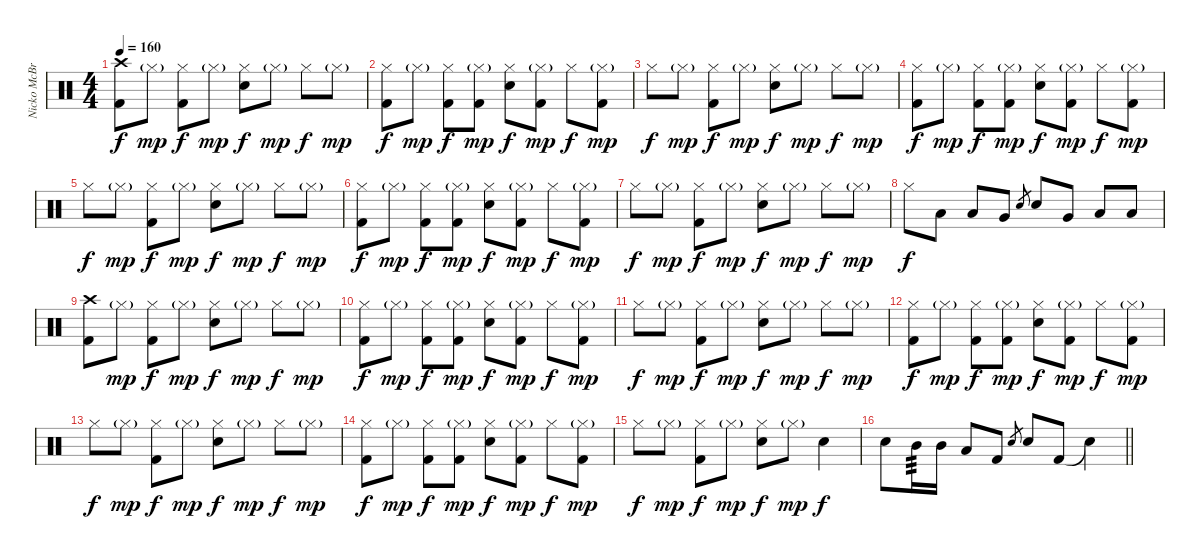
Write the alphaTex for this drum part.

\track ("Nicko McBrain" "Nicko McBr") {instrument percussion}
\staff {score}
\articulation defaults
\ts (4 4)
\tempo 160
\clef neutral
\ks c
("Crash high (hit)" "Kick (hit) 2").8{dy f volume 14} "Hi-Hat (closed)"{g}.8{dy mp} ("Hi-Hat (closed)" "Kick (hit) 2").8{dy f} "Hi-Hat (closed)"{g}.8{dy mp} ("Hi-Hat (closed)" "Electric Snare (hit)").8{dy f} "Hi-Hat (closed)"{g}.8{dy mp} "Hi-Hat (closed)".8{dy f} "Hi-Hat (closed)"{g}.8{dy mp} |
("Hi-Hat (closed)" "Kick (hit) 2").8{dy f} "Hi-Hat (closed)"{g}.8{dy mp} ("Hi-Hat (closed)" "Kick (hit) 2").8{dy f} ("Hi-Hat (closed)"{g} "Kick (hit) 2").8{dy mp} ("Hi-Hat (closed)" "Electric Snare (hit)").8{dy f} ("Hi-Hat (closed)"{g} "Kick (hit) 2").8{dy mp} "Hi-Hat (closed)".8{dy f} ("Hi-Hat (closed)"{g} "Kick (hit) 2").8{dy mp} |
"Hi-Hat (closed)".8{dy f} "Hi-Hat (closed)"{g}.8{dy mp} ("Hi-Hat (closed)" "Kick (hit) 2").8{dy f} "Hi-Hat (closed)"{g}.8{dy mp} ("Hi-Hat (closed)" "Electric Snare (hit)").8{dy f} "Hi-Hat (closed)"{g}.8{dy mp} "Hi-Hat (closed)".8{dy f} "Hi-Hat (closed)"{g}.8{dy mp} |
("Hi-Hat (closed)" "Kick (hit) 2").8{dy f} "Hi-Hat (closed)"{g}.8{dy mp} ("Hi-Hat (closed)" "Kick (hit) 2").8{dy f} ("Hi-Hat (closed)"{g} "Kick (hit) 2").8{dy mp} ("Hi-Hat (closed)" "Electric Snare (hit)").8{dy f} ("Hi-Hat (closed)"{g} "Kick (hit) 2").8{dy mp} "Hi-Hat (closed)".8{dy f} ("Hi-Hat (closed)"{g} "Kick (hit) 2").8{dy mp} |
"Hi-Hat (closed)".8{dy f} "Hi-Hat (closed)"{g}.8{dy mp} ("Hi-Hat (closed)" "Kick (hit) 2").8{dy f} "Hi-Hat (closed)"{g}.8{dy mp} ("Hi-Hat (closed)" "Electric Snare (hit)").8{dy f} "Hi-Hat (closed)"{g}.8{dy mp} "Hi-Hat (closed)".8{dy f} "Hi-Hat (closed)"{g}.8{dy mp} |
("Hi-Hat (closed)" "Kick (hit) 2").8{dy f} "Hi-Hat (closed)"{g}.8{dy mp} ("Hi-Hat (closed)" "Kick (hit) 2").8{dy f} ("Hi-Hat (closed)"{g} "Kick (hit) 2").8{dy mp} ("Hi-Hat (closed)" "Electric Snare (hit)").8{dy f} ("Hi-Hat (closed)"{g} "Kick (hit) 2").8{dy mp} "Hi-Hat (closed)".8{dy f} ("Hi-Hat (closed)"{g} "Kick (hit) 2").8{dy mp} |
"Hi-Hat (closed)".8{dy f} "Hi-Hat (closed)"{g}.8{dy mp} ("Hi-Hat (closed)" "Kick (hit) 2").8{dy f} "Hi-Hat (closed)"{g}.8{dy mp} ("Hi-Hat (closed)" "Electric Snare (hit)").8{dy f} "Hi-Hat (closed)"{g}.8{dy mp} "Hi-Hat (closed)".8{dy f} "Hi-Hat (closed)"{g}.8{dy mp} |
"Hi-Hat (closed)".8{dy f} "Low Tom (hit)".8 "Low Tom (hit)".8 "Very Low Tom (hit)".8 "Electric Snare (hit)".8{gr} "Electric Snare (hit)".8 "Very Low Tom (hit)".8 "Low Floor Tom (hit)".8 "Low Floor Tom (hit)".8 |
("Crash high (hit)" "Kick (hit) 2").8 "Hi-Hat (closed)"{g}.8{dy mp} ("Hi-Hat (closed)" "Kick (hit) 2").8{dy f} "Hi-Hat (closed)"{g}.8{dy mp} ("Hi-Hat (closed)" "Electric Snare (hit)").8{dy f} "Hi-Hat (closed)"{g}.8{dy mp} "Hi-Hat (closed)".8{dy f} "Hi-Hat (closed)"{g}.8{dy mp} |
("Hi-Hat (closed)" "Kick (hit) 2").8{dy f} "Hi-Hat (closed)"{g}.8{dy mp} ("Hi-Hat (closed)" "Kick (hit) 2").8{dy f} ("Hi-Hat (closed)"{g} "Kick (hit) 2").8{dy mp} ("Hi-Hat (closed)" "Electric Snare (hit)").8{dy f} ("Hi-Hat (closed)"{g} "Kick (hit) 2").8{dy mp} "Hi-Hat (closed)".8{dy f} ("Hi-Hat (closed)"{g} "Kick (hit) 2").8{dy mp} |
"Hi-Hat (closed)".8{dy f} "Hi-Hat (closed)"{g}.8{dy mp} ("Hi-Hat (closed)" "Kick (hit) 2").8{dy f} "Hi-Hat (closed)"{g}.8{dy mp} ("Hi-Hat (closed)" "Electric Snare (hit)").8{dy f} "Hi-Hat (closed)"{g}.8{dy mp} "Hi-Hat (closed)".8{dy f} "Hi-Hat (closed)"{g}.8{dy mp} |
("Hi-Hat (closed)" "Kick (hit) 2").8{dy f} "Hi-Hat (closed)"{g}.8{dy mp} ("Hi-Hat (closed)" "Kick (hit) 2").8{dy f} ("Hi-Hat (closed)"{g} "Kick (hit) 2").8{dy mp} ("Hi-Hat (closed)" "Electric Snare (hit)").8{dy f} ("Hi-Hat (closed)"{g} "Kick (hit) 2").8{dy mp} "Hi-Hat (closed)".8{dy f} ("Hi-Hat (closed)"{g} "Kick (hit) 2").8{dy mp} |
"Hi-Hat (closed)".8{dy f} "Hi-Hat (closed)"{g}.8{dy mp} ("Hi-Hat (closed)" "Kick (hit) 2").8{dy f} "Hi-Hat (closed)"{g}.8{dy mp} ("Hi-Hat (closed)" "Electric Snare (hit)").8{dy f} "Hi-Hat (closed)"{g}.8{dy mp} "Hi-Hat (closed)".8{dy f} "Hi-Hat (closed)"{g}.8{dy mp} |
("Hi-Hat (closed)" "Kick (hit) 2").8{dy f} "Hi-Hat (closed)"{g}.8{dy mp} ("Hi-Hat (closed)" "Kick (hit) 2").8{dy f} ("Hi-Hat (closed)"{g} "Kick (hit) 2").8{dy mp} ("Hi-Hat (closed)" "Electric Snare (hit)").8{dy f} ("Hi-Hat (closed)"{g} "Kick (hit) 2").8{dy mp} "Hi-Hat (closed)".8{dy f} ("Hi-Hat (closed)"{g} "Kick (hit) 2").8{dy mp} |
"Hi-Hat (closed)".8{dy f} "Hi-Hat (closed)"{g}.8{dy mp} ("Hi-Hat (closed)" "Kick (hit) 2").8{dy f} "Hi-Hat (closed)"{g}.8{dy mp} ("Hi-Hat (closed)" "Electric Snare (hit)").8{dy f} "Hi-Hat (closed)"{g}.8{dy mp} "Electric Snare (hit)".4{dy f} |
\barLineRight lightlight "Electric Snare (hit)".8 "Mid Tom (hit)".16{tp 3} "Mid Tom (hit)".16 "Low Tom (hit)".8 "Kick (hit) 2".8 "Electric Snare (hit)".8{gr} "Electric Snare (hit)".8 "Kick (hit) 2".8 "Snare (hit)"{t}.4
